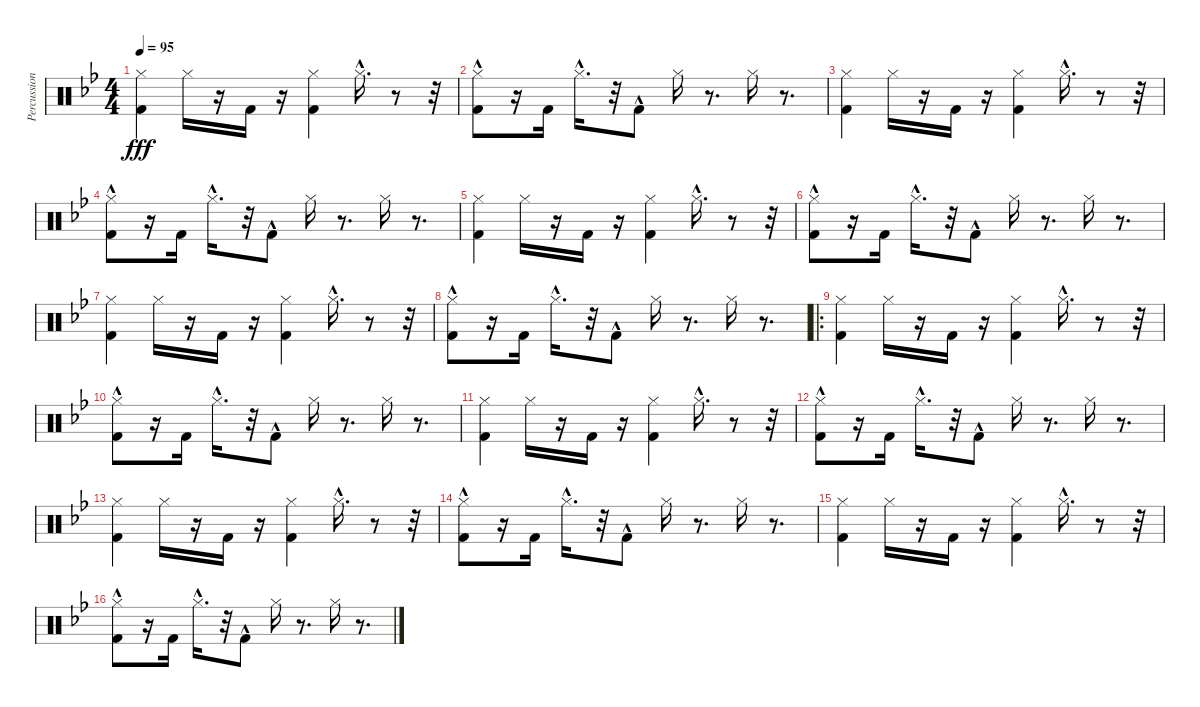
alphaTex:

\track ("Percussions" "Percussion") {instrument percussion}
\staff {score}
\articulation defaults
\ts (4 4)
\tempo 95
\clef neutral
\ks bb
("Kick (hit) 2" "Hi-Hat (closed)").4{dy fff} "Hi-Hat (closed)".16 r.16 "Kick (hit) 2".16 r.16 ("Kick (hit) 2" "Hi-Hat (closed)").4 "Hi-Hat (closed)"{hac}.16{d} r.8 r.32 |
("Kick (hit) 2"{hac} "Hi-Hat (closed)").8 r.16 "Kick (hit) 2".16 "Hi-Hat (closed)"{hac}.16{d} r.32 "Kick (hit) 2"{hac}.8 "Hi-Hat (closed)".16 r.8{d} "Hi-Hat (closed)".16 r.8{d} |
("Kick (hit) 2" "Hi-Hat (closed)").4 "Hi-Hat (closed)".16 r.16 "Kick (hit) 2".16 r.16 ("Kick (hit) 2" "Hi-Hat (closed)").4 "Hi-Hat (closed)"{hac}.16{d} r.8 r.32 |
("Kick (hit) 2"{hac} "Hi-Hat (closed)").8 r.16 "Kick (hit) 2".16 "Hi-Hat (closed)"{hac}.16{d} r.32 "Kick (hit) 2"{hac}.8 "Hi-Hat (closed)".16 r.8{d} "Hi-Hat (closed)".16 r.8{d} |
("Kick (hit) 2" "Hi-Hat (closed)").4 "Hi-Hat (closed)".16 r.16 "Kick (hit) 2".16 r.16 ("Kick (hit) 2" "Hi-Hat (closed)").4 "Hi-Hat (closed)"{hac}.16{d} r.8 r.32 |
("Kick (hit) 2"{hac} "Hi-Hat (closed)").8 r.16 "Kick (hit) 2".16 "Hi-Hat (closed)"{hac}.16{d} r.32 "Kick (hit) 2"{hac}.8 "Hi-Hat (closed)".16 r.8{d} "Hi-Hat (closed)".16 r.8{d} |
("Kick (hit) 2" "Hi-Hat (closed)").4 "Hi-Hat (closed)".16 r.16 "Kick (hit) 2".16 r.16 ("Kick (hit) 2" "Hi-Hat (closed)").4 "Hi-Hat (closed)"{hac}.16{d} r.8 r.32 |
("Kick (hit) 2"{hac} "Hi-Hat (closed)").8 r.16 "Kick (hit) 2".16 "Hi-Hat (closed)"{hac}.16{d} r.32 "Kick (hit) 2"{hac}.8 "Hi-Hat (closed)".16 r.8{d} "Hi-Hat (closed)".16 r.8{d} |
\ro
("Kick (hit) 2" "Hi-Hat (closed)").4 "Hi-Hat (closed)".16 r.16 "Kick (hit) 2".16 r.16 ("Kick (hit) 2" "Hi-Hat (closed)").4 "Hi-Hat (closed)"{hac}.16{d} r.8 r.32 |
("Kick (hit) 2"{hac} "Hi-Hat (closed)").8 r.16 "Kick (hit) 2".16 "Hi-Hat (closed)"{hac}.16{d} r.32 "Kick (hit) 2"{hac}.8 "Hi-Hat (closed)".16 r.8{d} "Hi-Hat (closed)".16 r.8{d} |
("Kick (hit) 2" "Hi-Hat (closed)").4 "Hi-Hat (closed)".16 r.16 "Kick (hit) 2".16 r.16 ("Kick (hit) 2" "Hi-Hat (closed)").4 "Hi-Hat (closed)"{hac}.16{d} r.8 r.32 |
("Kick (hit) 2"{hac} "Hi-Hat (closed)").8 r.16 "Kick (hit) 2".16 "Hi-Hat (closed)"{hac}.16{d} r.32 "Kick (hit) 2"{hac}.8 "Hi-Hat (closed)".16 r.8{d} "Hi-Hat (closed)".16 r.8{d} |
("Kick (hit) 2" "Hi-Hat (closed)").4 "Hi-Hat (closed)".16 r.16 "Kick (hit) 2".16 r.16 ("Kick (hit) 2" "Hi-Hat (closed)").4 "Hi-Hat (closed)"{hac}.16{d} r.8 r.32 |
("Kick (hit) 2"{hac} "Hi-Hat (closed)").8 r.16 "Kick (hit) 2".16 "Hi-Hat (closed)"{hac}.16{d} r.32 "Kick (hit) 2"{hac}.8 "Hi-Hat (closed)".16 r.8{d} "Hi-Hat (closed)".16 r.8{d} |
("Kick (hit) 2" "Hi-Hat (closed)").4 "Hi-Hat (closed)".16 r.16 "Kick (hit) 2".16 r.16 ("Kick (hit) 2" "Hi-Hat (closed)").4 "Hi-Hat (closed)"{hac}.16{d} r.8 r.32 |
("Kick (hit) 2"{hac} "Hi-Hat (closed)").8 r.16 "Kick (hit) 2".16 "Hi-Hat (closed)"{hac}.16{d} r.32 "Kick (hit) 2"{hac}.8 "Hi-Hat (closed)".16 r.8{d} "Hi-Hat (closed)".16 r.8{d}
